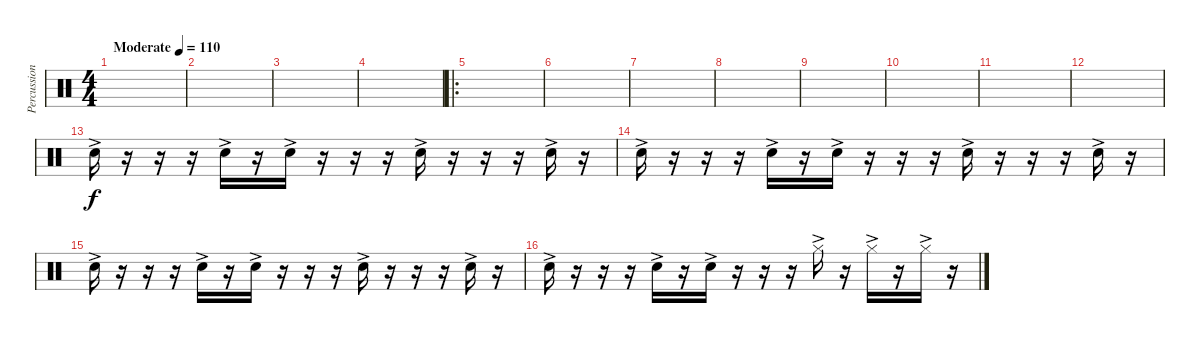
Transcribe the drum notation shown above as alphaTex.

\track ("Percussion" "Percussion") {instrument percussion}
\staff {score}
\articulation defaults
\ts (4 4)
\tempo (110 "Moderate")
\clef neutral
\ks c
|
|
|
|
\ro
|
|
|
|
|
|
|
|
"Snare (hit) 2"{ac}.16 r.16 r.16 r.16 "Snare (hit) 2"{ac}.16 r.16 "Snare (hit) 2"{ac}.16 r.16 r.16 r.16 "Snare (hit) 2"{ac}.16 r.16 r.16 r.16 "Snare (hit) 2"{ac}.16 r.16 |
"Snare (hit) 2"{ac}.16 r.16 r.16 r.16 "Snare (hit) 2"{ac}.16 r.16 "Snare (hit) 2"{ac}.16 r.16 r.16 r.16 "Snare (hit) 2"{ac}.16 r.16 r.16 r.16 "Snare (hit) 2"{ac}.16 r.16 |
"Snare (hit) 2"{ac}.16 r.16 r.16 r.16 "Snare (hit) 2"{ac}.16 r.16 "Snare (hit) 2"{ac}.16 r.16 r.16 r.16 "Snare (hit) 2"{ac}.16 r.16 r.16 r.16 "Snare (hit) 2"{ac}.16 r.16 |
"Snare (hit) 2"{ac}.16 r.16 r.16 r.16 "Snare (hit) 2"{ac}.16 r.16 "Snare (hit) 2"{ac}.16 r.16 r.16 r.16 "Hi-Hat (closed)"{ac}.16 r.16 "Hi-Hat (closed)"{ac}.16 r.16 "Hi-Hat (closed)"{ac}.16 r.16
